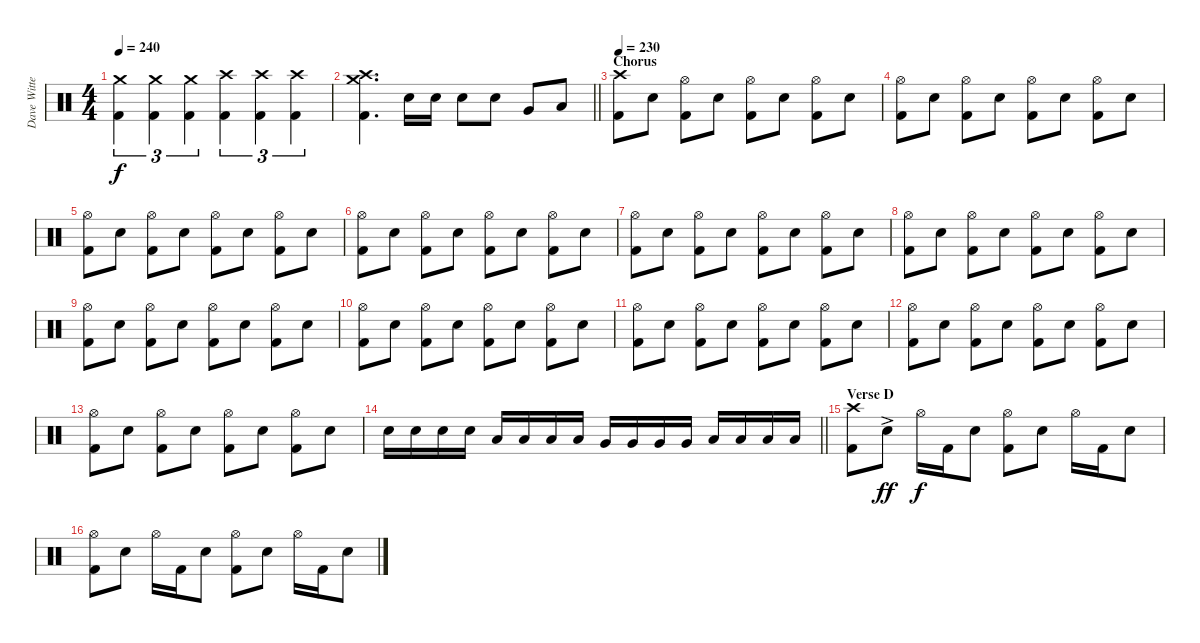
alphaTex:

\track ("Dave Witte" "Dave Witte") {instrument percussion}
\staff {score}
\articulation defaults
\ts (4 4)
\tempo 240
\clef neutral
\ks c
("Crash medium (hit)" "Kick (hit) 2").4{tu (3 2) dy f volume 14} ("Crash medium (hit)" "Kick (hit) 2").4{tu (3 2)} ("Crash medium (hit)" "Kick (hit) 2").4{tu (3 2)} ("Crash high (hit)" "Kick (hit) 2").4{tu (3 2)} ("Crash high (hit)" "Kick (hit) 2").4{tu (3 2)} ("Crash high (hit)" "Kick (hit) 2").4{tu (3 2)} |
\barLineRight lightlight
("Crash medium (hit)" "Crash high (hit)" "Kick (hit) 2").4{d} "Electric Snare (hit)".16 "Electric Snare (hit)".16 "Electric Snare (hit)".8 "Electric Snare (hit)".8 "Very Low Tom (hit)".8 "Low Floor Tom (hit)".8 |
\section ("" "Chorus")
\tempo 230
("Crash high (hit)" "Kick (hit) 2").8 "Electric Snare (hit)".8 ("Hi-Hat (open)" "Kick (hit) 2").8 "Electric Snare (hit)".8 ("Hi-Hat (open)" "Kick (hit) 2").8 "Electric Snare (hit)".8 ("Hi-Hat (open)" "Kick (hit) 2").8 "Electric Snare (hit)".8 |
("Hi-Hat (open)" "Kick (hit) 2").8 "Electric Snare (hit)".8 ("Hi-Hat (open)" "Kick (hit) 2").8 "Electric Snare (hit)".8 ("Hi-Hat (open)" "Kick (hit) 2").8 "Electric Snare (hit)".8 ("Hi-Hat (open)" "Kick (hit) 2").8 "Electric Snare (hit)".8 |
("Hi-Hat (open)" "Kick (hit) 2").8 "Electric Snare (hit)".8 ("Hi-Hat (open)" "Kick (hit) 2").8 "Electric Snare (hit)".8 ("Hi-Hat (open)" "Kick (hit) 2").8 "Electric Snare (hit)".8 ("Hi-Hat (open)" "Kick (hit) 2").8 "Electric Snare (hit)".8 |
("Hi-Hat (open)" "Kick (hit) 2").8 "Electric Snare (hit)".8 ("Hi-Hat (open)" "Kick (hit) 2").8 "Electric Snare (hit)".8 ("Hi-Hat (open)" "Kick (hit) 2").8 "Electric Snare (hit)".8 ("Hi-Hat (open)" "Kick (hit) 2").8 "Electric Snare (hit)".8 |
("Hi-Hat (open)" "Kick (hit) 2").8 "Electric Snare (hit)".8 ("Hi-Hat (open)" "Kick (hit) 2").8 "Electric Snare (hit)".8 ("Hi-Hat (open)" "Kick (hit) 2").8 "Electric Snare (hit)".8 ("Hi-Hat (open)" "Kick (hit) 2").8 "Electric Snare (hit)".8 |
("Hi-Hat (open)" "Kick (hit) 2").8 "Electric Snare (hit)".8 ("Hi-Hat (open)" "Kick (hit) 2").8 "Electric Snare (hit)".8 ("Hi-Hat (open)" "Kick (hit) 2").8 "Electric Snare (hit)".8 ("Hi-Hat (open)" "Kick (hit) 2").8 "Electric Snare (hit)".8 |
("Hi-Hat (open)" "Kick (hit) 2").8 "Electric Snare (hit)".8 ("Hi-Hat (open)" "Kick (hit) 2").8 "Electric Snare (hit)".8 ("Hi-Hat (open)" "Kick (hit) 2").8 "Electric Snare (hit)".8 ("Hi-Hat (open)" "Kick (hit) 2").8 "Electric Snare (hit)".8 |
("Hi-Hat (open)" "Kick (hit) 2").8 "Electric Snare (hit)".8 ("Hi-Hat (open)" "Kick (hit) 2").8 "Electric Snare (hit)".8 ("Hi-Hat (open)" "Kick (hit) 2").8 "Electric Snare (hit)".8 ("Hi-Hat (open)" "Kick (hit) 2").8 "Electric Snare (hit)".8 |
("Hi-Hat (open)" "Kick (hit) 2").8 "Electric Snare (hit)".8 ("Hi-Hat (open)" "Kick (hit) 2").8 "Electric Snare (hit)".8 ("Hi-Hat (open)" "Kick (hit) 2").8 "Electric Snare (hit)".8 ("Hi-Hat (open)" "Kick (hit) 2").8 "Electric Snare (hit)".8 |
("Hi-Hat (open)" "Kick (hit) 2").8 "Electric Snare (hit)".8 ("Hi-Hat (open)" "Kick (hit) 2").8 "Electric Snare (hit)".8 ("Hi-Hat (open)" "Kick (hit) 2").8 "Electric Snare (hit)".8 ("Hi-Hat (open)" "Kick (hit) 2").8 "Electric Snare (hit)".8 |
("Hi-Hat (open)" "Kick (hit) 2").8 "Electric Snare (hit)".8 ("Hi-Hat (open)" "Kick (hit) 2").8 "Electric Snare (hit)".8 ("Hi-Hat (open)" "Kick (hit) 2").8 "Electric Snare (hit)".8 ("Hi-Hat (open)" "Kick (hit) 2").8 "Electric Snare (hit)".8 |
\barLineRight lightlight "Electric Snare (hit)".16 "Electric Snare (hit)".16 "Electric Snare (hit)".16 "Electric Snare (hit)".16 "Low Tom (hit)".16 "Low Tom (hit)".16 "Low Tom (hit)".16 "Low Tom (hit)".16 "Very Low Tom (hit)".16 "Very Low Tom (hit)".16 "Very Low Tom (hit)".16 "Very Low Tom (hit)".16 "Low Floor Tom (hit)".16 "Low Floor Tom (hit)".16 "Low Floor Tom (hit)".16 "Low Floor Tom (hit)".16
|
\section ("" "Verse D")
("Crash high (hit)" "Kick (hit) 2").8 "Electric Snare (hit)"{ac}.8{dy ff} "Hi-Hat (open)".16{dy f} "Kick (hit) 2".16 "Electric Snare (hit)".8 ("Hi-Hat (open)" "Kick (hit) 2").8 "Electric Snare (hit)".8 "Hi-Hat (open)".16 "Kick (hit) 2".16 "Electric Snare (hit)".8 |
("Hi-Hat (open)" "Kick (hit) 2").8 "Electric Snare (hit)".8 "Hi-Hat (open)".16 "Kick (hit) 2".16 "Electric Snare (hit)".8 ("Hi-Hat (open)" "Kick (hit) 2").8 "Electric Snare (hit)".8 "Hi-Hat (open)".16 "Kick (hit) 2".16 "Electric Snare (hit)".8
